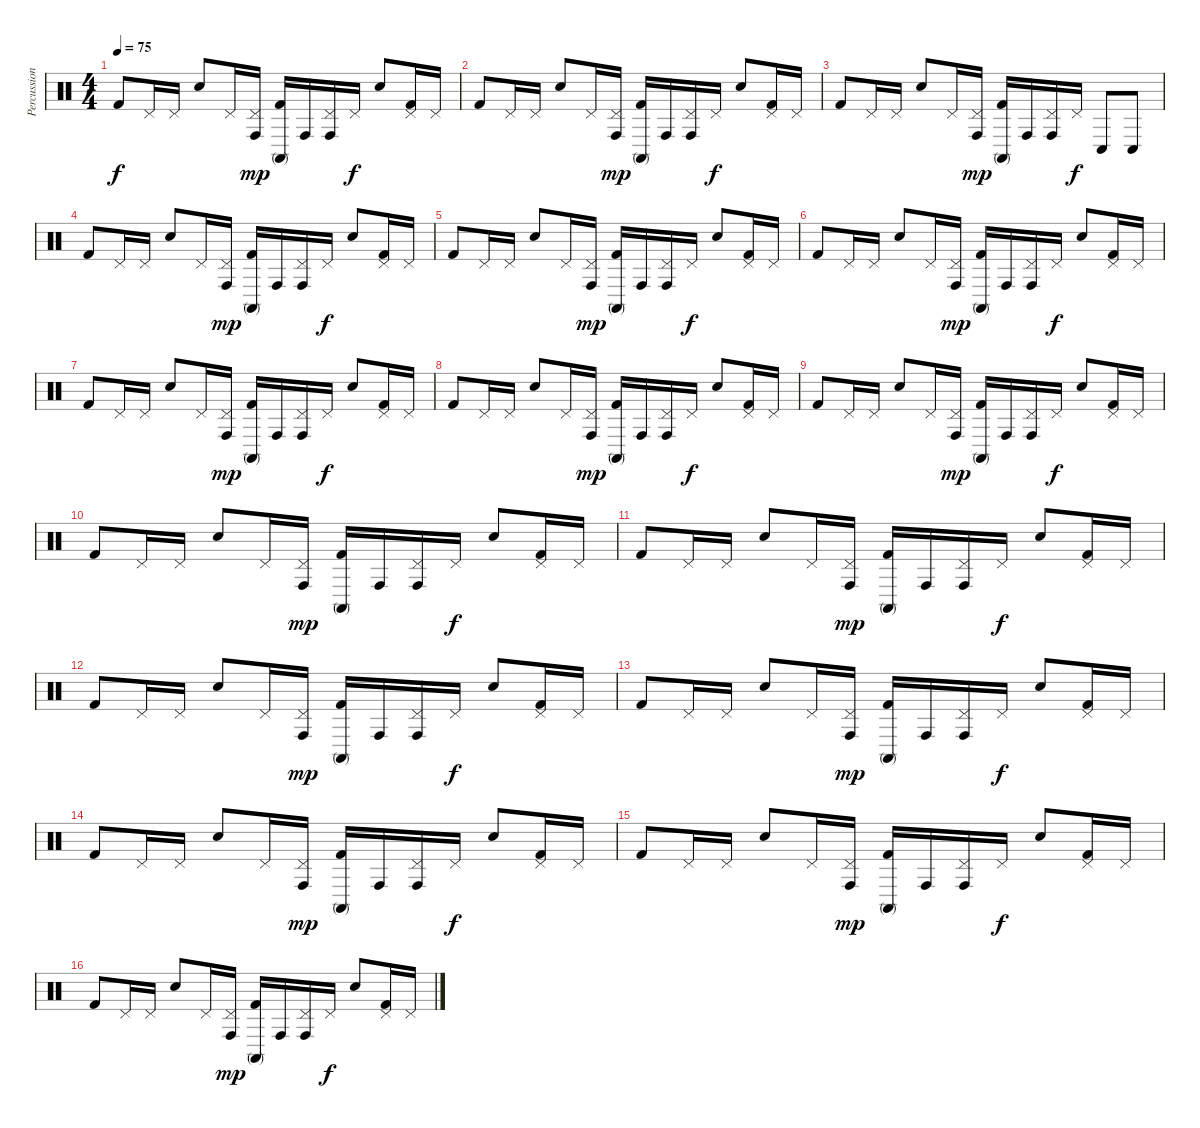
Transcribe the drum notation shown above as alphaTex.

\track ("Percussion" "Percussion") {instrument percussion}
\staff {score}
\articulation defaults
\ts (4 4)
\tempo 75
\clef neutral
\ks c "Kick (hit) 2".8{dy f} "Pedal Hi-Hat (hit)".16 "Pedal Hi-Hat (hit)".16 "Snare (hit) 2".8 "Pedal Hi-Hat (hit)".16
("Pedal Hi-Hat (hit)" "Conga high (hit)").16{dy mp} ("Conga high (mute)" "Kick (hit) 2").16 "Conga high (hit)".16 ("Pedal Hi-Hat (hit)" "Conga high (hit)").16 "Pedal Hi-Hat (hit)".16{dy f} "Snare (hit) 2".8 ("Pedal Hi-Hat (hit)" "Kick (hit) 2").16 "Pedal Hi-Hat (hit)".16 |
"Kick (hit) 2".8 "Pedal Hi-Hat (hit)".16 "Pedal Hi-Hat (hit)".16 "Snare (hit) 2".8 "Pedal Hi-Hat (hit)".16 ("Pedal Hi-Hat (hit)" "Conga high (hit)").16{dy mp} ("Conga high (mute)" "Kick (hit) 2").16 "Conga high (hit)".16 ("Pedal Hi-Hat (hit)" "Conga high (hit)").16 "Pedal Hi-Hat (hit)".16{dy f} "Snare (hit) 2".8 ("Pedal Hi-Hat (hit)" "Kick (hit) 2").16 "Pedal Hi-Hat (hit)".16 |
"Kick (hit) 2".8 "Pedal Hi-Hat (hit)".16 "Pedal Hi-Hat (hit)".16 "Snare (hit) 2".8 "Pedal Hi-Hat (hit)".16 ("Pedal Hi-Hat (hit)" "Conga high (hit)").16{dy mp} ("Conga high (mute)" "Kick (hit) 2").16 "Conga high (hit)".16 ("Pedal Hi-Hat (hit)" "Conga high (hit)").16 "Pedal Hi-Hat (hit)".16{dy f} "Conga low (hit)".8 "Conga low (hit)".8 |
"Kick (hit) 2".8 "Pedal Hi-Hat (hit)".16 "Pedal Hi-Hat (hit)".16 "Snare (hit) 2".8 "Pedal Hi-Hat (hit)".16 ("Pedal Hi-Hat (hit)" "Conga high (hit)").16{dy mp} ("Conga high (mute)" "Kick (hit) 2").16 "Conga high (hit)".16 ("Pedal Hi-Hat (hit)" "Conga high (hit)").16 "Pedal Hi-Hat (hit)".16{dy f} "Snare (hit) 2".8 ("Pedal Hi-Hat (hit)" "Kick (hit) 2").16 "Pedal Hi-Hat (hit)".16 |
"Kick (hit) 2".8 "Pedal Hi-Hat (hit)".16 "Pedal Hi-Hat (hit)".16 "Snare (hit) 2".8 "Pedal Hi-Hat (hit)".16 ("Pedal Hi-Hat (hit)" "Conga high (hit)").16{dy mp} ("Conga high (mute)" "Kick (hit) 2").16 "Conga high (hit)".16 ("Pedal Hi-Hat (hit)" "Conga high (hit)").16 "Pedal Hi-Hat (hit)".16{dy f} "Snare (hit) 2".8 ("Pedal Hi-Hat (hit)" "Kick (hit) 2").16 "Pedal Hi-Hat (hit)".16 |
"Kick (hit) 2".8 "Pedal Hi-Hat (hit)".16 "Pedal Hi-Hat (hit)".16 "Snare (hit) 2".8 "Pedal Hi-Hat (hit)".16 ("Pedal Hi-Hat (hit)" "Conga high (hit)").16{dy mp} ("Conga high (mute)" "Kick (hit) 2").16 "Conga high (hit)".16 ("Pedal Hi-Hat (hit)" "Conga high (hit)").16 "Pedal Hi-Hat (hit)".16{dy f} "Snare (hit) 2".8 ("Pedal Hi-Hat (hit)" "Kick (hit) 2").16 "Pedal Hi-Hat (hit)".16 |
"Kick (hit) 2".8 "Pedal Hi-Hat (hit)".16 "Pedal Hi-Hat (hit)".16 "Snare (hit) 2".8 "Pedal Hi-Hat (hit)".16 ("Pedal Hi-Hat (hit)" "Conga high (hit)").16{dy mp} ("Conga high (mute)" "Kick (hit) 2").16 "Conga high (hit)".16 ("Pedal Hi-Hat (hit)" "Conga high (hit)").16 "Pedal Hi-Hat (hit)".16{dy f} "Snare (hit) 2".8 ("Pedal Hi-Hat (hit)" "Kick (hit) 2").16 "Pedal Hi-Hat (hit)".16 |
"Kick (hit) 2".8 "Pedal Hi-Hat (hit)".16 "Pedal Hi-Hat (hit)".16 "Snare (hit) 2".8 "Pedal Hi-Hat (hit)".16 ("Pedal Hi-Hat (hit)" "Conga high (hit)").16{dy mp} ("Conga high (mute)" "Kick (hit) 2").16 "Conga high (hit)".16 ("Pedal Hi-Hat (hit)" "Conga high (hit)").16 "Pedal Hi-Hat (hit)".16{dy f} "Snare (hit) 2".8 ("Pedal Hi-Hat (hit)" "Kick (hit) 2").16 "Pedal Hi-Hat (hit)".16 |
"Kick (hit) 2".8 "Pedal Hi-Hat (hit)".16 "Pedal Hi-Hat (hit)".16 "Snare (hit) 2".8 "Pedal Hi-Hat (hit)".16 ("Pedal Hi-Hat (hit)" "Conga high (hit)").16{dy mp} ("Conga high (mute)" "Kick (hit) 2").16 "Conga high (hit)".16 ("Pedal Hi-Hat (hit)" "Conga high (hit)").16 "Pedal Hi-Hat (hit)".16{dy f} "Snare (hit) 2".8 ("Pedal Hi-Hat (hit)" "Kick (hit) 2").16 "Pedal Hi-Hat (hit)".16 |
"Kick (hit) 2".8 "Pedal Hi-Hat (hit)".16 "Pedal Hi-Hat (hit)".16 "Snare (hit) 2".8 "Pedal Hi-Hat (hit)".16 ("Pedal Hi-Hat (hit)" "Conga high (hit)").16{dy mp} ("Conga high (mute)" "Kick (hit) 2").16 "Conga high (hit)".16 ("Pedal Hi-Hat (hit)" "Conga high (hit)").16 "Pedal Hi-Hat (hit)".16{dy f} "Snare (hit) 2".8 ("Pedal Hi-Hat (hit)" "Kick (hit) 2").16 "Pedal Hi-Hat (hit)".16 |
"Kick (hit) 2".8 "Pedal Hi-Hat (hit)".16 "Pedal Hi-Hat (hit)".16 "Snare (hit) 2".8 "Pedal Hi-Hat (hit)".16 ("Pedal Hi-Hat (hit)" "Conga high (hit)").16{dy mp} ("Conga high (mute)" "Kick (hit) 2").16 "Conga high (hit)".16 ("Pedal Hi-Hat (hit)" "Conga high (hit)").16 "Pedal Hi-Hat (hit)".16{dy f} "Snare (hit) 2".8 ("Pedal Hi-Hat (hit)" "Kick (hit) 2").16 "Pedal Hi-Hat (hit)".16 |
"Kick (hit) 2".8 "Pedal Hi-Hat (hit)".16 "Pedal Hi-Hat (hit)".16 "Snare (hit) 2".8 "Pedal Hi-Hat (hit)".16 ("Pedal Hi-Hat (hit)" "Conga high (hit)").16{dy mp} ("Conga high (mute)" "Kick (hit) 2").16 "Conga high (hit)".16 ("Pedal Hi-Hat (hit)" "Conga high (hit)").16 "Pedal Hi-Hat (hit)".16{dy f} "Snare (hit) 2".8 ("Pedal Hi-Hat (hit)" "Kick (hit) 2").16 "Pedal Hi-Hat (hit)".16 |
"Kick (hit) 2".8 "Pedal Hi-Hat (hit)".16 "Pedal Hi-Hat (hit)".16 "Snare (hit) 2".8 "Pedal Hi-Hat (hit)".16 ("Pedal Hi-Hat (hit)" "Conga high (hit)").16{dy mp} ("Conga high (mute)" "Kick (hit) 2").16 "Conga high (hit)".16 ("Pedal Hi-Hat (hit)" "Conga high (hit)").16 "Pedal Hi-Hat (hit)".16{dy f} "Snare (hit) 2".8 ("Pedal Hi-Hat (hit)" "Kick (hit) 2").16 "Pedal Hi-Hat (hit)".16 |
"Kick (hit) 2".8 "Pedal Hi-Hat (hit)".16 "Pedal Hi-Hat (hit)".16 "Snare (hit) 2".8 "Pedal Hi-Hat (hit)".16 ("Pedal Hi-Hat (hit)" "Conga high (hit)").16{dy mp} ("Conga high (mute)" "Kick (hit) 2").16 "Conga high (hit)".16 ("Pedal Hi-Hat (hit)" "Conga high (hit)").16 "Pedal Hi-Hat (hit)".16{dy f} "Snare (hit) 2".8 ("Pedal Hi-Hat (hit)" "Kick (hit) 2").16 "Pedal Hi-Hat (hit)".16 |
"Kick (hit) 2".8 "Pedal Hi-Hat (hit)".16 "Pedal Hi-Hat (hit)".16 "Snare (hit) 2".8 "Pedal Hi-Hat (hit)".16 ("Pedal Hi-Hat (hit)" "Conga high (hit)").16{dy mp} ("Conga high (mute)" "Kick (hit) 2").16 "Conga high (hit)".16 ("Pedal Hi-Hat (hit)" "Conga high (hit)").16 "Pedal Hi-Hat (hit)".16{dy f} "Snare (hit) 2".8 ("Pedal Hi-Hat (hit)" "Kick (hit) 2").16 "Pedal Hi-Hat (hit)".16 |
"Kick (hit) 2".8 "Pedal Hi-Hat (hit)".16 "Pedal Hi-Hat (hit)".16 "Snare (hit) 2".8 "Pedal Hi-Hat (hit)".16 ("Pedal Hi-Hat (hit)" "Conga high (hit)").16{dy mp} ("Conga high (mute)" "Kick (hit) 2").16 "Conga high (hit)".16 ("Pedal Hi-Hat (hit)" "Conga high (hit)").16 "Pedal Hi-Hat (hit)".16{dy f} "Snare (hit) 2".8 ("Pedal Hi-Hat (hit)" "Kick (hit) 2").16 "Pedal Hi-Hat (hit)".16
